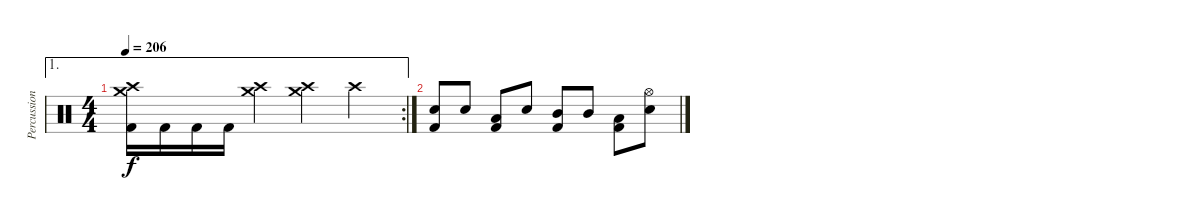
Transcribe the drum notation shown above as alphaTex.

\track ("Percussion" "Percussion") {instrument percussion}
\staff {score}
\articulation defaults
\ae 1
\rc 2
\ts (4 4)
\tempo 206
\clef neutral
\ks c
("Crash high (hit)" "Crash medium (hit)" "Kick (hit) 2").16{dy f} "Kick (hit) 2".16 "Kick (hit) 2".16 "Kick (hit) 2".16 ("Crash high (hit)" "Crash medium (hit)").4 ("Crash high (hit)" "Crash medium (hit)").4 "Crash high (hit)".4 |
("Snare (hit) 2" "Kick (hit) 2").8 "Snare (hit) 2".8 ("Low Tom (hit)" "Kick (hit) 2").8 "Snare (hit) 2".8 ("Mid Tom (hit)" "Kick (hit) 2").8 "Mid Tom (hit)".8 ("Low Tom (hit)" "Kick (hit) 2").8 ("Hi-Hat (open)" "Electric Snare (hit)").8
